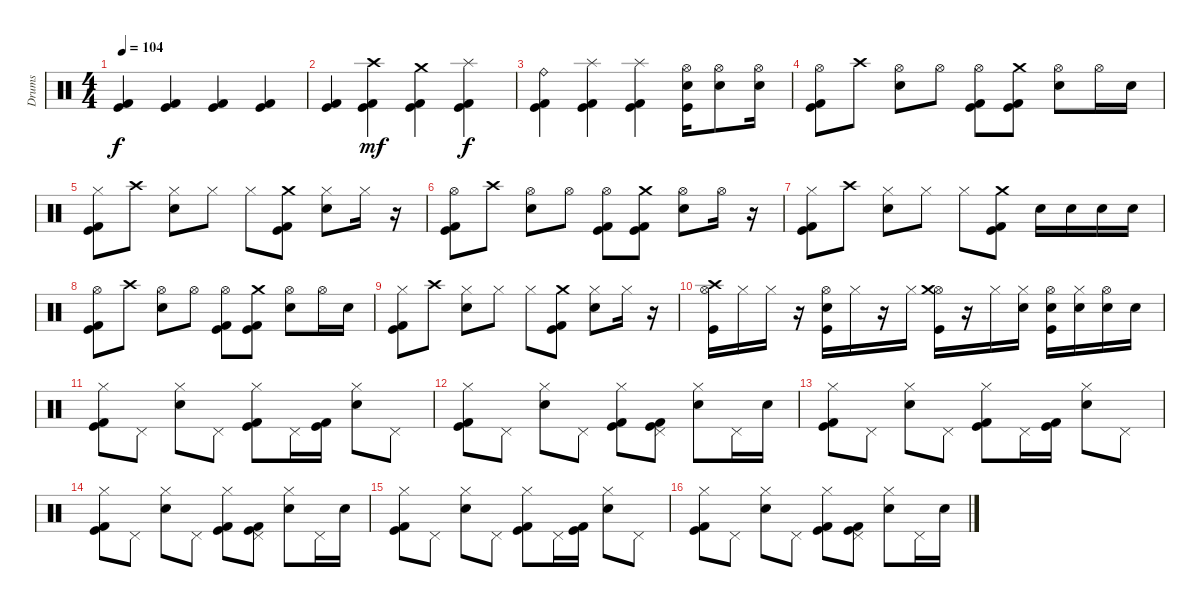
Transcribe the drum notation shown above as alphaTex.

\track ("Drums" "Drums") {instrument percussion}
\staff {score}
\articulation defaults
\ts (4 4)
\tempo 104
\clef neutral
\ks c
("Kick (hit) 2" "Kick (hit)").4{dy f} ("Kick (hit) 2" "Kick (hit)").4 ("Kick (hit) 2" "Kick (hit)").4 ("Kick (hit) 2" "Kick (hit)").4 |
("Kick (hit) 2" "Kick (hit)").4 ("Crash high (hit)" "Kick (hit) 2" "Kick (hit)").4{dy mf} ("Crash medium (hit)" "Kick (hit) 2" "Kick (hit)").4 ("Splash (hit)" "Kick (hit) 2" "Kick (hit)").4{dy f} |
("Ride (bell)" "Kick (hit) 2" "Kick (hit)").4 ("Splash (hit)" "Kick (hit) 2" "Kick (hit)").4 ("Splash (hit)" "Kick (hit) 2" "Kick (hit)").4 ("Hi-Hat (open)" "Snare (hit) 2" "Kick (hit)").16 ("Hi-Hat (open)" "Snare (hit) 2").8 ("Hi-Hat (open)" "Snare (hit) 2").16 |
("Hi-Hat (open)" "Kick (hit) 2" "Kick (hit)").8 "Crash high (hit)".8 ("Hi-Hat (open)" "Snare (hit) 2").8 "Hi-Hat (open)".8 ("Hi-Hat (open)" "Kick (hit)" "Kick (hit) 2").8 ("Crash medium (hit)" "Kick (hit)" "Kick (hit) 2").8 ("Hi-Hat (open)" "Snare (hit) 2").8 "Hi-Hat (open)".16 "Snare (hit) 2".16 |
("Hi-Hat (closed)" "Kick (hit) 2" "Kick (hit)").8 "Crash high (hit)".8 ("Hi-Hat (closed)" "Snare (hit) 2").8 "Hi-Hat (closed)".8 "Hi-Hat (closed)".8 ("Crash medium (hit)" "Kick (hit)" "Kick (hit) 2").8 ("Hi-Hat (closed)" "Snare (hit) 2").8 "Hi-Hat (closed)".16 r.16 |
("Hi-Hat (open)" "Kick (hit) 2" "Kick (hit)").8 "Crash high (hit)".8 ("Hi-Hat (open)" "Snare (hit) 2").8 "Hi-Hat (open)".8 ("Hi-Hat (open)" "Kick (hit)" "Kick (hit) 2").8 ("Crash medium (hit)" "Kick (hit)" "Kick (hit) 2").8 ("Hi-Hat (open)" "Snare (hit) 2").8 "Hi-Hat (open)".16 r.16 |
("Hi-Hat (closed)" "Kick (hit) 2" "Kick (hit)").8 "Crash high (hit)".8 ("Hi-Hat (closed)" "Snare (hit) 2").8 "Hi-Hat (closed)".8 "Hi-Hat (closed)".8 ("Crash medium (hit)" "Kick (hit)" "Kick (hit) 2").8 "Snare (hit) 2".16 "Snare (hit) 2".16 "Snare (hit) 2".16 "Snare (hit) 2".16 |
("Hi-Hat (open)" "Kick (hit) 2" "Kick (hit)").8 "Crash high (hit)".8 ("Hi-Hat (open)" "Snare (hit) 2").8 "Hi-Hat (open)".8 ("Hi-Hat (open)" "Kick (hit)" "Kick (hit) 2").8 ("Crash medium (hit)" "Kick (hit)" "Kick (hit) 2").8 ("Hi-Hat (open)" "Snare (hit) 2").8 "Hi-Hat (open)".16 "Snare (hit) 2".16 |
("Hi-Hat (closed)" "Kick (hit) 2" "Kick (hit)").8 "Crash high (hit)".8 ("Hi-Hat (closed)" "Snare (hit) 2").8 "Hi-Hat (closed)".8 "Hi-Hat (closed)".8 ("Crash medium (hit)" "Kick (hit)" "Kick (hit) 2").8 ("Hi-Hat (closed)" "Snare (hit) 2").8 "Hi-Hat (closed)".16 r.16 |
("Hi-Hat (open)" "Crash high (hit)" "Kick (hit)").16 "Hi-Hat (closed)".16 "Hi-Hat (closed)".16 r.16 ("Hi-Hat (open)" "Snare (hit) 2" "Kick (hit)").16 "Hi-Hat (closed)".16 r.16 "Hi-Hat (closed)".16 ("Hi-Hat (open)" "Crash medium (hit)" "Kick (hit)").16 r.16 "Hi-Hat (closed)".16 ("Hi-Hat (closed)" "Snare (hit) 2").16 ("Hi-Hat (open)" "Snare (hit) 2" "Kick (hit)").16 ("Hi-Hat (closed)" "Snare (hit) 2").16 ("Hi-Hat (open)" "Snare (hit) 2").16 "Snare (hit) 2".16 |
("Hi-Hat (closed)" "Kick (hit) 2" "Kick (hit)").8 "Pedal Hi-Hat (hit)".8 ("Hi-Hat (closed)" "Snare (hit) 2").8 "Pedal Hi-Hat (hit)".8 ("Hi-Hat (closed)" "Kick (hit)" "Kick (hit) 2").8 "Pedal Hi-Hat (hit)".16 ("Kick (hit)" "Kick (hit) 2").16 ("Hi-Hat (closed)" "Snare (hit) 2").8 "Pedal Hi-Hat (hit)".8 |
("Hi-Hat (closed)" "Kick (hit) 2" "Kick (hit)").8 "Pedal Hi-Hat (hit)".8 ("Hi-Hat (closed)" "Snare (hit) 2").8 "Pedal Hi-Hat (hit)".8 ("Hi-Hat (closed)" "Kick (hit)" "Kick (hit) 2").8 ("Pedal Hi-Hat (hit)" "Kick (hit)" "Kick (hit) 2").8 ("Hi-Hat (closed)" "Snare (hit) 2").8 "Pedal Hi-Hat (hit)".16 "Snare (hit) 2".16 |
("Hi-Hat (closed)" "Kick (hit) 2" "Kick (hit)").8 "Pedal Hi-Hat (hit)".8 ("Hi-Hat (closed)" "Snare (hit) 2").8 "Pedal Hi-Hat (hit)".8 ("Hi-Hat (closed)" "Kick (hit)" "Kick (hit) 2").8 "Pedal Hi-Hat (hit)".16 ("Kick (hit)" "Kick (hit) 2").16 ("Hi-Hat (closed)" "Snare (hit) 2").8 "Pedal Hi-Hat (hit)".8 |
("Hi-Hat (closed)" "Kick (hit) 2" "Kick (hit)").8 "Pedal Hi-Hat (hit)".8 ("Hi-Hat (closed)" "Snare (hit) 2").8 "Pedal Hi-Hat (hit)".8 ("Hi-Hat (closed)" "Kick (hit)" "Kick (hit) 2").8 ("Pedal Hi-Hat (hit)" "Kick (hit)" "Kick (hit) 2").8 ("Hi-Hat (closed)" "Snare (hit) 2").8 "Pedal Hi-Hat (hit)".16 "Snare (hit) 2".16 |
("Hi-Hat (closed)" "Kick (hit) 2" "Kick (hit)").8 "Pedal Hi-Hat (hit)".8 ("Hi-Hat (closed)" "Snare (hit) 2").8 "Pedal Hi-Hat (hit)".8 ("Hi-Hat (closed)" "Kick (hit)" "Kick (hit) 2").8 "Pedal Hi-Hat (hit)".16 ("Kick (hit)" "Kick (hit) 2").16 ("Hi-Hat (closed)" "Snare (hit) 2").8 "Pedal Hi-Hat (hit)".8 |
("Hi-Hat (closed)" "Kick (hit) 2" "Kick (hit)").8 "Pedal Hi-Hat (hit)".8 ("Hi-Hat (closed)" "Snare (hit) 2").8 "Pedal Hi-Hat (hit)".8 ("Hi-Hat (closed)" "Kick (hit)" "Kick (hit) 2").8 ("Pedal Hi-Hat (hit)" "Kick (hit)" "Kick (hit) 2").8 ("Hi-Hat (closed)" "Snare (hit) 2").8 "Pedal Hi-Hat (hit)".16 "Snare (hit) 2".16
